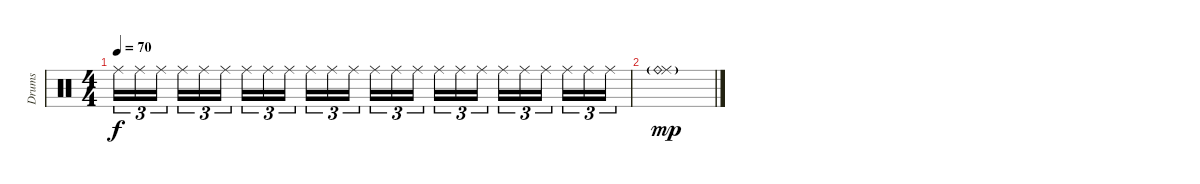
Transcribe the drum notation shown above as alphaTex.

\track ("Drums" "Drums") {instrument percussion}
\staff {score}
\articulation defaults
\ts (4 4)
\tempo 70
\clef neutral
\ks c "Ride (middle)".16{tu (3 2) dy f volume 16} "Ride (middle)".16{tu (3 2)} "Ride (middle)".16{tu (3 2)} "Ride (middle)".16{tu (3 2)} "Ride (middle)".16{tu (3 2)} "Ride (middle)".16{tu (3 2)} "Ride (middle)".16{tu (3 2)} "Ride (middle)".16{tu (3 2)} "Ride (middle)".16{tu (3 2)} "Ride (middle)".16{tu (3 2)} "Ride (middle)".16{tu (3 2)} "Ride (middle)".16{tu (3 2)} "Ride (middle)".16{tu (3 2)} "Ride (middle)".16{tu (3 2)} "Ride (middle)".16{tu (3 2)} "Ride (middle)".16{tu (3 2)} "Ride (middle)".16{tu (3 2)} "Ride (middle)".16{tu (3 2)} "Ride (middle)".16{tu (3 2)} "Ride (middle)".16{tu (3 2)} "Ride (middle)".16{tu (3 2)} "Ride (middle)".16{tu (3 2)} "Ride (middle)".16{tu (3 2)} "Ride (middle)".16{tu (3 2)}
|
("Ride (middle)" "Ride (bell)"{g}).1{dy mp}
